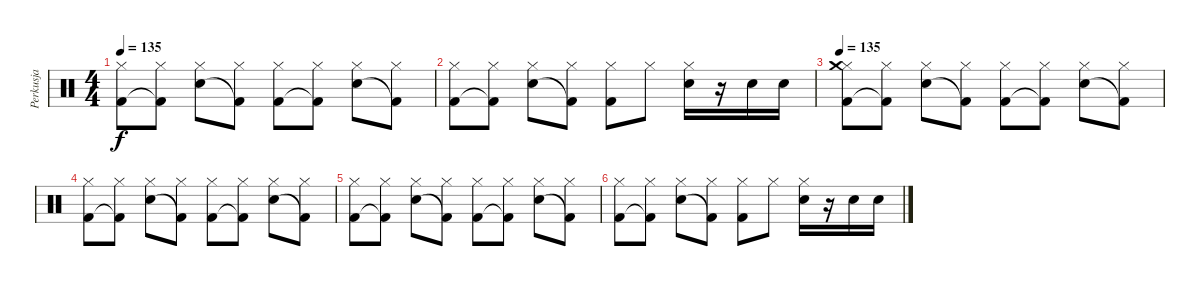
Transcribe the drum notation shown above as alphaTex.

\track ("Perkusja" "Perkusja") {instrument percussion}
\staff {score}
\articulation defaults
\ts (4 4)
\tempo 135
\clef neutral
\ks c
("Kick (hit) 2" "Hi-Hat (closed)").8{dy f} ("Kick (hit) 2"{t} "Hi-Hat (closed)").8 ("Snare (hit) 2" "Hi-Hat (closed)").8 ("Kick (hit) 2"{t} "Hi-Hat (closed)").8 ("Kick (hit) 2" "Hi-Hat (closed)").8 ("Kick (hit) 2"{t} "Hi-Hat (closed)").8 ("Snare (hit) 2" "Hi-Hat (closed)").8 ("Kick (hit) 2"{t} "Hi-Hat (closed)").8 |
("Kick (hit) 2" "Hi-Hat (closed)").8 ("Kick (hit) 2"{t} "Hi-Hat (closed)").8 ("Snare (hit) 2" "Hi-Hat (closed)").8 ("Kick (hit) 2"{t} "Hi-Hat (closed)").8 ("Kick (hit) 2" "Hi-Hat (closed)").8 "Hi-Hat (closed)".8 ("Snare (hit) 2" "Hi-Hat (closed)").16 r.16 "Snare (hit) 2".16 "Snare (hit) 2".16 |
\tempo 135
("Kick (hit) 2" "Hi-Hat (closed)" "Crash medium (hit)").8 ("Kick (hit) 2"{t} "Hi-Hat (closed)").8 ("Snare (hit) 2" "Hi-Hat (closed)").8 ("Kick (hit) 2"{t} "Hi-Hat (closed)").8 ("Kick (hit) 2" "Hi-Hat (closed)").8 ("Kick (hit) 2"{t} "Hi-Hat (closed)").8 ("Snare (hit) 2" "Hi-Hat (closed)").8 ("Kick (hit) 2"{t} "Hi-Hat (closed)").8 |
("Kick (hit) 2" "Hi-Hat (closed)").8 ("Kick (hit) 2"{t} "Hi-Hat (closed)").8 ("Snare (hit) 2" "Hi-Hat (closed)").8 ("Kick (hit) 2"{t} "Hi-Hat (closed)").8 ("Kick (hit) 2" "Hi-Hat (closed)").8 ("Kick (hit) 2"{t} "Hi-Hat (closed)").8 ("Snare (hit) 2" "Hi-Hat (closed)").8 ("Kick (hit) 2"{t} "Hi-Hat (closed)").8 |
("Kick (hit) 2" "Hi-Hat (closed)").8 ("Kick (hit) 2"{t} "Hi-Hat (closed)").8 ("Snare (hit) 2" "Hi-Hat (closed)").8 ("Kick (hit) 2"{t} "Hi-Hat (closed)").8 ("Kick (hit) 2" "Hi-Hat (closed)").8 ("Kick (hit) 2"{t} "Hi-Hat (closed)").8 ("Snare (hit) 2" "Hi-Hat (closed)").8 ("Kick (hit) 2"{t} "Hi-Hat (closed)").8 |
("Kick (hit) 2" "Hi-Hat (closed)").8 ("Kick (hit) 2"{t} "Hi-Hat (closed)").8 ("Snare (hit) 2" "Hi-Hat (closed)").8 ("Kick (hit) 2"{t} "Hi-Hat (closed)").8 ("Kick (hit) 2" "Hi-Hat (closed)").8 "Hi-Hat (closed)".8 ("Snare (hit) 2" "Hi-Hat (closed)").16 r.16 "Snare (hit) 2".16 "Snare (hit) 2".16
